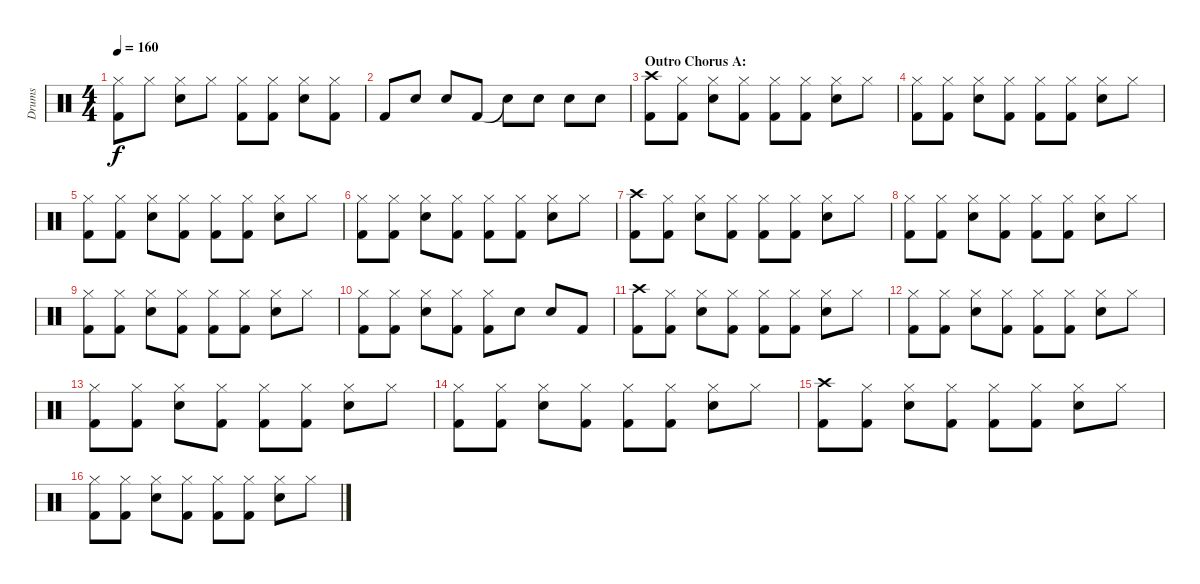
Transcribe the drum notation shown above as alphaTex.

\track ("Drums" "Drums") {instrument percussion}
\staff {score}
\articulation defaults
\ts (4 4)
\tempo 160
\clef neutral
\ks c
("Hi-Hat (closed)" "Kick (hit) 2").8{dy f} "Hi-Hat (closed)".8 ("Hi-Hat (closed)" "Electric Snare (hit)").8 "Hi-Hat (closed)".8 ("Hi-Hat (closed)" "Kick (hit) 2").8 ("Hi-Hat (closed)" "Kick (hit) 2").8 ("Hi-Hat (closed)" "Electric Snare (hit)").8 ("Hi-Hat (closed)" "Kick (hit) 2").8 |
"Kick (hit) 2".8 "Electric Snare (hit)".8 "Electric Snare (hit)".8 "Kick (hit) 2".8 "Snare (hit)"{t}.8 "Electric Snare (hit)".8 "Electric Snare (hit)".8 "Electric Snare (hit)".8 |
\section ("" "Outro Chorus A:")
("Crash high (hit)" "Kick (hit) 2").8 ("Hi-Hat (closed)" "Kick (hit) 2").8 ("Hi-Hat (closed)" "Electric Snare (hit)").8 ("Hi-Hat (closed)" "Kick (hit) 2").8 ("Hi-Hat (closed)" "Kick (hit) 2").8 ("Hi-Hat (closed)" "Kick (hit) 2").8 ("Hi-Hat (closed)" "Electric Snare (hit)").8 "Hi-Hat (closed)".8 |
("Hi-Hat (closed)" "Kick (hit) 2").8 ("Hi-Hat (closed)" "Kick (hit) 2").8 ("Hi-Hat (closed)" "Electric Snare (hit)").8 ("Hi-Hat (closed)" "Kick (hit) 2").8 ("Hi-Hat (closed)" "Kick (hit) 2").8 ("Hi-Hat (closed)" "Kick (hit) 2").8 ("Hi-Hat (closed)" "Electric Snare (hit)").8 "Hi-Hat (closed)".8 |
("Hi-Hat (closed)" "Kick (hit) 2").8 ("Hi-Hat (closed)" "Kick (hit) 2").8 ("Hi-Hat (closed)" "Electric Snare (hit)").8 ("Hi-Hat (closed)" "Kick (hit) 2").8 ("Hi-Hat (closed)" "Kick (hit) 2").8 ("Hi-Hat (closed)" "Kick (hit) 2").8 ("Hi-Hat (closed)" "Electric Snare (hit)").8 "Hi-Hat (closed)".8 |
("Hi-Hat (closed)" "Kick (hit) 2").8 ("Hi-Hat (closed)" "Kick (hit) 2").8 ("Hi-Hat (closed)" "Electric Snare (hit)").8 ("Hi-Hat (closed)" "Kick (hit) 2").8 ("Hi-Hat (closed)" "Kick (hit) 2").8 ("Hi-Hat (closed)" "Kick (hit) 2").8 ("Hi-Hat (closed)" "Electric Snare (hit)").8 "Hi-Hat (closed)".8 |
("Crash high (hit)" "Kick (hit) 2").8 ("Hi-Hat (closed)" "Kick (hit) 2").8 ("Hi-Hat (closed)" "Electric Snare (hit)").8 ("Hi-Hat (closed)" "Kick (hit) 2").8 ("Hi-Hat (closed)" "Kick (hit) 2").8 ("Hi-Hat (closed)" "Kick (hit) 2").8 ("Hi-Hat (closed)" "Electric Snare (hit)").8 "Hi-Hat (closed)".8 |
("Hi-Hat (closed)" "Kick (hit) 2").8 ("Hi-Hat (closed)" "Kick (hit) 2").8 ("Hi-Hat (closed)" "Electric Snare (hit)").8 ("Hi-Hat (closed)" "Kick (hit) 2").8 ("Hi-Hat (closed)" "Kick (hit) 2").8 ("Hi-Hat (closed)" "Kick (hit) 2").8 ("Hi-Hat (closed)" "Electric Snare (hit)").8 "Hi-Hat (closed)".8 |
("Hi-Hat (closed)" "Kick (hit) 2").8 ("Hi-Hat (closed)" "Kick (hit) 2").8 ("Hi-Hat (closed)" "Electric Snare (hit)").8 ("Hi-Hat (closed)" "Kick (hit) 2").8 ("Hi-Hat (closed)" "Kick (hit) 2").8 ("Hi-Hat (closed)" "Kick (hit) 2").8 ("Hi-Hat (closed)" "Electric Snare (hit)").8 "Hi-Hat (closed)".8 |
("Hi-Hat (closed)" "Kick (hit) 2").8 ("Hi-Hat (closed)" "Kick (hit) 2").8 ("Hi-Hat (closed)" "Electric Snare (hit)").8 ("Hi-Hat (closed)" "Kick (hit) 2").8 ("Hi-Hat (closed)" "Kick (hit) 2").8 "Electric Snare (hit)".8 "Electric Snare (hit)".8 "Kick (hit) 2".8 |
("Crash high (hit)" "Kick (hit) 2").8 ("Hi-Hat (closed)" "Kick (hit) 2").8 ("Hi-Hat (closed)" "Electric Snare (hit)").8 ("Hi-Hat (closed)" "Kick (hit) 2").8 ("Hi-Hat (closed)" "Kick (hit) 2").8 ("Hi-Hat (closed)" "Kick (hit) 2").8 ("Hi-Hat (closed)" "Electric Snare (hit)").8 "Hi-Hat (closed)".8 |
("Hi-Hat (closed)" "Kick (hit) 2").8 ("Hi-Hat (closed)" "Kick (hit) 2").8 ("Hi-Hat (closed)" "Electric Snare (hit)").8 ("Hi-Hat (closed)" "Kick (hit) 2").8 ("Hi-Hat (closed)" "Kick (hit) 2").8 ("Hi-Hat (closed)" "Kick (hit) 2").8 ("Hi-Hat (closed)" "Electric Snare (hit)").8 "Hi-Hat (closed)".8 |
("Hi-Hat (closed)" "Kick (hit) 2").8 ("Hi-Hat (closed)" "Kick (hit) 2").8 ("Hi-Hat (closed)" "Electric Snare (hit)").8 ("Hi-Hat (closed)" "Kick (hit) 2").8 ("Hi-Hat (closed)" "Kick (hit) 2").8 ("Hi-Hat (closed)" "Kick (hit) 2").8 ("Hi-Hat (closed)" "Electric Snare (hit)").8 "Hi-Hat (closed)".8 |
("Hi-Hat (closed)" "Kick (hit) 2").8 ("Hi-Hat (closed)" "Kick (hit) 2").8 ("Hi-Hat (closed)" "Electric Snare (hit)").8 ("Hi-Hat (closed)" "Kick (hit) 2").8 ("Hi-Hat (closed)" "Kick (hit) 2").8 ("Hi-Hat (closed)" "Kick (hit) 2").8 ("Hi-Hat (closed)" "Electric Snare (hit)").8 "Hi-Hat (closed)".8 |
("Crash high (hit)" "Kick (hit) 2").8 ("Hi-Hat (closed)" "Kick (hit) 2").8 ("Hi-Hat (closed)" "Electric Snare (hit)").8 ("Hi-Hat (closed)" "Kick (hit) 2").8 ("Hi-Hat (closed)" "Kick (hit) 2").8 ("Hi-Hat (closed)" "Kick (hit) 2").8 ("Hi-Hat (closed)" "Electric Snare (hit)").8 "Hi-Hat (closed)".8 |
("Hi-Hat (closed)" "Kick (hit) 2").8 ("Hi-Hat (closed)" "Kick (hit) 2").8 ("Hi-Hat (closed)" "Electric Snare (hit)").8 ("Hi-Hat (closed)" "Kick (hit) 2").8 ("Hi-Hat (closed)" "Kick (hit) 2").8 ("Hi-Hat (closed)" "Kick (hit) 2").8 ("Hi-Hat (closed)" "Electric Snare (hit)").8 "Hi-Hat (closed)".8
